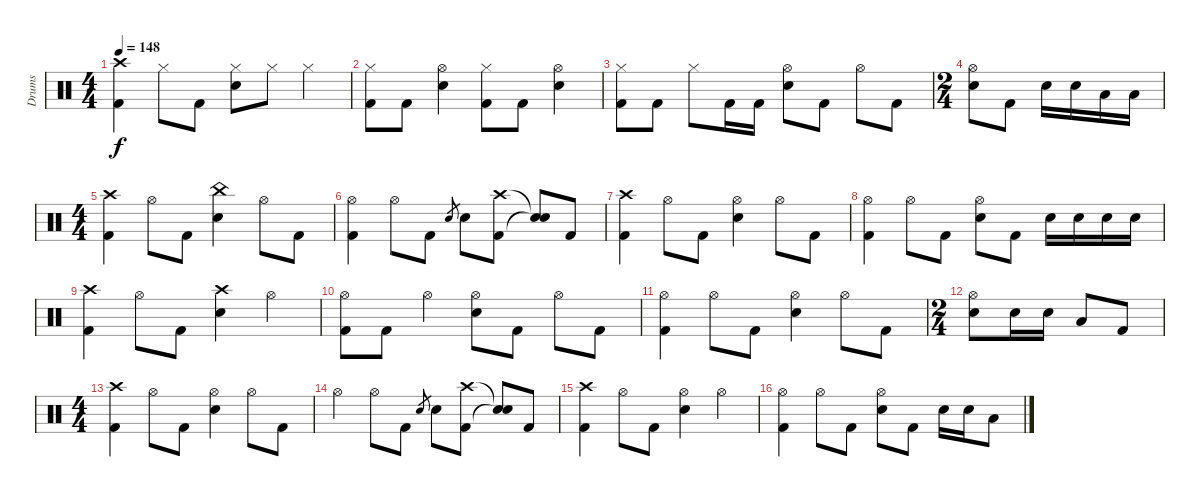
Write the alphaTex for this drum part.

\track ("Drums" "Drums") {instrument percussion}
\staff {score}
\articulation defaults
\ts (4 4)
\tempo 148
\clef neutral
\ks c
("Crash high (hit)" "Kick (hit) 2").4{dy f} "Hi-Hat (closed)".8 "Kick (hit) 2".8 ("Hi-Hat (closed)" "Electric Snare (hit)").8 "Hi-Hat (closed)".8 "Hi-Hat (closed)".4 |
("Hi-Hat (closed)" "Kick (hit) 2").8 "Kick (hit) 2".8 ("Hi-Hat (open)" "Electric Snare (hit)").4 ("Hi-Hat (closed)" "Kick (hit) 2").8 "Kick (hit) 2".8 ("Hi-Hat (open)" "Electric Snare (hit)").4 |
("Hi-Hat (closed)" "Kick (hit) 2").8 "Kick (hit) 2".8 "Hi-Hat (closed)".8 "Kick (hit) 2".16 "Kick (hit) 2".16 ("Hi-Hat (open)" "Electric Snare (hit)").8 "Kick (hit) 2".8 "Hi-Hat (open)".8 "Kick (hit) 2".8 |
\ts (2 4)
("Hi-Hat (open)" "Electric Snare (hit)").8 "Kick (hit) 2".8 "Electric Snare (hit)".16 "Electric Snare (hit)".16 "Low Tom (hit)".16 "Low Tom (hit)".16 |
\ts (4 4)
("Crash high (hit)" "Kick (hit) 2").4 "Hi-Hat (open)".8 "Kick (hit) 2".8 ("China (hit)" "Electric Snare (hit)").4 "Hi-Hat (open)".8 "Kick (hit) 2".8 |
("Hi-Hat (open)" "Kick (hit) 2").4 "Hi-Hat (open)".8 "Kick (hit) 2".8 "Electric Snare (hit)".8{gr} "Electric Snare (hit)".8 ("Crash high (hit)" "Kick (hit) 2").8 ("Snare (hit)"{t} "Snare (hit)"{t}).8 "Kick (hit) 2".8 |
("Crash high (hit)" "Kick (hit) 2").4 "Hi-Hat (open)".8 "Kick (hit) 2".8 ("Hi-Hat (open)" "Electric Snare (hit)").4 "Hi-Hat (open)".8 "Kick (hit) 2".8 |
("Hi-Hat (open)" "Kick (hit) 2").4 "Hi-Hat (open)".8 "Kick (hit) 2".8 ("Hi-Hat (open)" "Electric Snare (hit)").8 "Kick (hit) 2".8 "Electric Snare (hit)".16 "Electric Snare (hit)".16 "Electric Snare (hit)".16 "Electric Snare (hit)".16 |
("Crash high (hit)" "Kick (hit) 2").4 "Hi-Hat (open)".8 "Kick (hit) 2".8 ("Crash high (hit)" "Electric Snare (hit)").4 "Hi-Hat (open)".4 |
("Hi-Hat (open)" "Kick (hit) 2").8 "Kick (hit) 2".8 "Hi-Hat (open)".4 ("Hi-Hat (open)" "Electric Snare (hit)").8 "Kick (hit) 2".8 "Hi-Hat (open)".8 "Kick (hit) 2".8 |
("Hi-Hat (open)" "Kick (hit) 2").4 "Hi-Hat (open)".8 "Kick (hit) 2".8 ("Hi-Hat (open)" "Electric Snare (hit)").4 "Hi-Hat (open)".8 "Kick (hit) 2".8 |
\ts (2 4)
("Hi-Hat (open)" "Electric Snare (hit)").8 "Electric Snare (hit)".16 "Electric Snare (hit)".16 "Low Tom (hit)".8 "Kick (hit) 2".8 |
\ts (4 4)
("Crash high (hit)" "Kick (hit) 2").4 "Hi-Hat (open)".8 "Kick (hit) 2".8 ("Hi-Hat (open)" "Electric Snare (hit)").4 "Hi-Hat (open)".8 "Kick (hit) 2".8 |
"Hi-Hat (open)".4 "Hi-Hat (open)".8 "Kick (hit) 2".8 "Electric Snare (hit)".8{gr} "Electric Snare (hit)".8 ("Crash high (hit)" "Kick (hit) 2").8 ("Snare (hit)"{t} "Snare (hit)"{t}).8 "Kick (hit) 2".8 |
("Crash high (hit)" "Kick (hit) 2").4 "Hi-Hat (open)".8 "Kick (hit) 2".8 ("Hi-Hat (open)" "Electric Snare (hit)").4 "Hi-Hat (open)".4 |
("Hi-Hat (open)" "Kick (hit) 2").4 "Hi-Hat (open)".8 "Kick (hit) 2".8 ("Hi-Hat (open)" "Electric Snare (hit)").8 "Kick (hit) 2".8 "Electric Snare (hit)".16 "Electric Snare (hit)".16 "Low Tom (hit)".8
